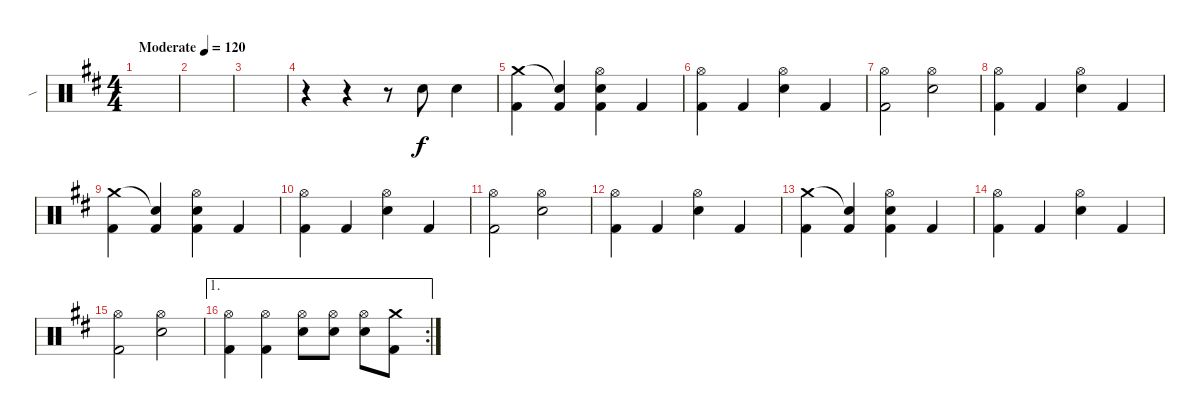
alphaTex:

\track ("\\" "\\") {instrument percussion}
\staff {score}
\articulation defaults
\ts (4 4)
\tempo (120 "Moderate")
\clef neutral
\ks d
|
|
|
r.4 r.4 r.8 "Electric Snare (hit)".8 "Electric Snare (hit)".4 |
("Crash medium (hit)" "Kick (hit) 2").4 ("Snare (hit)"{t} "Kick (hit) 2").4 ("Hi-Hat (open)" "Electric Snare (hit)" "Kick (hit) 2").4 "Kick (hit) 2".4 |
("Hi-Hat (open)" "Kick (hit) 2").4 "Kick (hit) 2".4 ("Hi-Hat (open)" "Electric Snare (hit)").4 "Kick (hit) 2".4 |
("Hi-Hat (open)" "Kick (hit) 2").2 ("Hi-Hat (open)" "Electric Snare (hit)").2 |
("Hi-Hat (open)" "Kick (hit) 2").4 "Kick (hit) 2".4 ("Hi-Hat (open)" "Electric Snare (hit)").4 "Kick (hit) 2".4 |
("Crash medium (hit)" "Kick (hit) 2").4 ("Snare (hit)"{t} "Kick (hit) 2").4 ("Hi-Hat (open)" "Electric Snare (hit)" "Kick (hit) 2").4 "Kick (hit) 2".4 |
("Hi-Hat (open)" "Kick (hit) 2").4 "Kick (hit) 2".4 ("Hi-Hat (open)" "Electric Snare (hit)").4 "Kick (hit) 2".4 |
("Hi-Hat (open)" "Kick (hit) 2").2 ("Hi-Hat (open)" "Electric Snare (hit)").2 |
("Hi-Hat (open)" "Kick (hit) 2").4 "Kick (hit) 2".4 ("Hi-Hat (open)" "Electric Snare (hit)").4 "Kick (hit) 2".4 |
("Crash medium (hit)" "Kick (hit) 2").4 ("Snare (hit)"{t} "Kick (hit) 2").4 ("Hi-Hat (open)" "Electric Snare (hit)" "Kick (hit) 2").4 "Kick (hit) 2".4 |
("Hi-Hat (open)" "Kick (hit) 2").4 "Kick (hit) 2".4 ("Hi-Hat (open)" "Electric Snare (hit)").4 "Kick (hit) 2".4 |
("Hi-Hat (open)" "Kick (hit) 2").2 ("Hi-Hat (open)" "Electric Snare (hit)").2 |
\ae 1
\rc 2
("Hi-Hat (open)" "Kick (hit) 2").4 ("Hi-Hat (open)" "Kick (hit) 2").4 ("Hi-Hat (open)" "Electric Snare (hit)").8 ("Hi-Hat (open)" "Electric Snare (hit)").8 ("Hi-Hat (open)" "Electric Snare (hit)").8 ("Crash medium (hit)" "Kick (hit) 2").8
